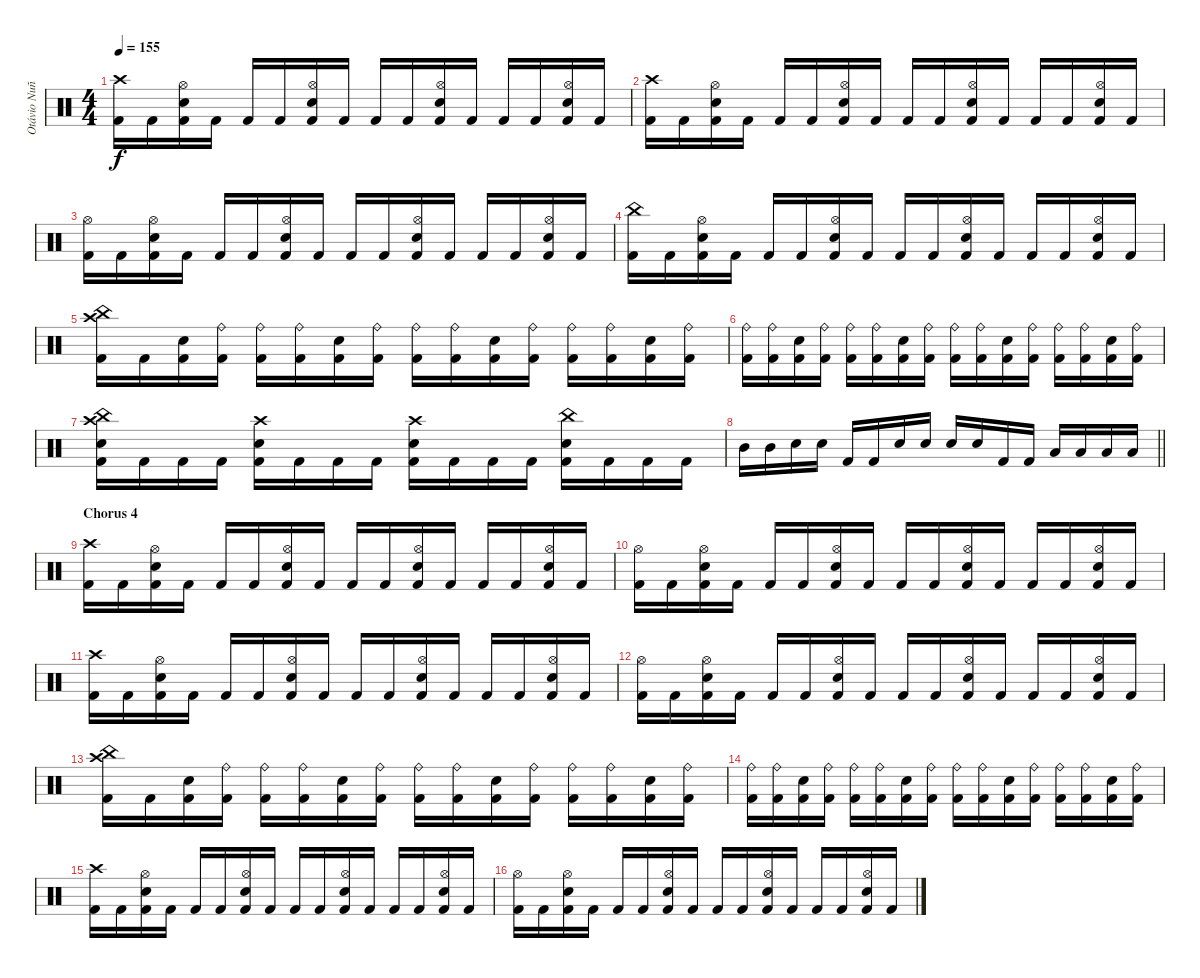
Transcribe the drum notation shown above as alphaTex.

\track ("Otávio Nuñez" "Otávio Nuñ") {instrument percussion}
\staff {score}
\articulation defaults
\ts (4 4)
\tempo 155
\clef neutral
\ks c
("Crash high (hit)" "Kick (hit) 2").16{dy f} "Kick (hit) 2".16 ("Hi-Hat (open)" "Electric Snare (hit)" "Kick (hit) 2").16 "Kick (hit) 2".16 "Kick (hit) 2".16 "Kick (hit) 2".16 ("Hi-Hat (open)" "Electric Snare (hit)" "Kick (hit) 2").16 "Kick (hit) 2".16 "Kick (hit) 2".16 "Kick (hit) 2".16 ("Hi-Hat (open)" "Electric Snare (hit)" "Kick (hit) 2").16 "Kick (hit) 2".16 "Kick (hit) 2".16 "Kick (hit) 2".16 ("Hi-Hat (open)" "Electric Snare (hit)" "Kick (hit) 2").16 "Kick (hit) 2".16 |
("Crash high (hit)" "Kick (hit) 2").16 "Kick (hit) 2".16 ("Hi-Hat (open)" "Electric Snare (hit)" "Kick (hit) 2").16 "Kick (hit) 2".16 "Kick (hit) 2".16 "Kick (hit) 2".16 ("Hi-Hat (open)" "Electric Snare (hit)" "Kick (hit) 2").16 "Kick (hit) 2".16 "Kick (hit) 2".16 "Kick (hit) 2".16 ("Hi-Hat (open)" "Electric Snare (hit)" "Kick (hit) 2").16 "Kick (hit) 2".16 "Kick (hit) 2".16 "Kick (hit) 2".16 ("Hi-Hat (open)" "Electric Snare (hit)" "Kick (hit) 2").16 "Kick (hit) 2".16 |
("Hi-Hat (open)" "Kick (hit) 2").16 "Kick (hit) 2".16 ("Hi-Hat (open)" "Electric Snare (hit)" "Kick (hit) 2").16 "Kick (hit) 2".16 "Kick (hit) 2".16 "Kick (hit) 2".16 ("Hi-Hat (open)" "Electric Snare (hit)" "Kick (hit) 2").16 "Kick (hit) 2".16 "Kick (hit) 2".16 "Kick (hit) 2".16 ("Hi-Hat (open)" "Electric Snare (hit)" "Kick (hit) 2").16 "Kick (hit) 2".16 "Kick (hit) 2".16 "Kick (hit) 2".16 ("Hi-Hat (open)" "Electric Snare (hit)" "Kick (hit) 2").16 "Kick (hit) 2".16 |
("China (hit)" "Kick (hit) 2").16 "Kick (hit) 2".16 ("Hi-Hat (open)" "Electric Snare (hit)" "Kick (hit) 2").16 "Kick (hit) 2".16 "Kick (hit) 2".16 "Kick (hit) 2".16 ("Hi-Hat (open)" "Electric Snare (hit)" "Kick (hit) 2").16 "Kick (hit) 2".16 "Kick (hit) 2".16 "Kick (hit) 2".16 ("Hi-Hat (open)" "Electric Snare (hit)" "Kick (hit) 2").16 "Kick (hit) 2".16 "Kick (hit) 2".16 "Kick (hit) 2".16 ("Hi-Hat (open)" "Electric Snare (hit)" "Kick (hit) 2").16 "Kick (hit) 2".16 |
("China (hit)" "Crash high (hit)" "Kick (hit) 2").16 "Kick (hit) 2".16 ("Electric Snare (hit)" "Kick (hit) 2").16 ("Ride (bell)" "Kick (hit) 2").16 ("Ride (bell)" "Kick (hit) 2").16 ("Ride (bell)" "Kick (hit) 2").16 ("Electric Snare (hit)" "Kick (hit) 2").16 ("Ride (bell)" "Kick (hit) 2").16 ("Ride (bell)" "Kick (hit) 2").16 ("Ride (bell)" "Kick (hit) 2").16 ("Electric Snare (hit)" "Kick (hit) 2").16 ("Ride (bell)" "Kick (hit) 2").16 ("Ride (bell)" "Kick (hit) 2").16 ("Ride (bell)" "Kick (hit) 2").16 ("Electric Snare (hit)" "Kick (hit) 2").16 ("Ride (bell)" "Kick (hit) 2").16 |
("Ride (bell)" "Kick (hit) 2").16 ("Ride (bell)" "Kick (hit) 2").16 ("Electric Snare (hit)" "Kick (hit) 2").16 ("Ride (bell)" "Kick (hit) 2").16 ("Ride (bell)" "Kick (hit) 2").16 ("Ride (bell)" "Kick (hit) 2").16 ("Electric Snare (hit)" "Kick (hit) 2").16 ("Ride (bell)" "Kick (hit) 2").16 ("Ride (bell)" "Kick (hit) 2").16 ("Ride (bell)" "Kick (hit) 2").16 ("Electric Snare (hit)" "Kick (hit) 2").16 ("Ride (bell)" "Kick (hit) 2").16 ("Ride (bell)" "Kick (hit) 2").16 ("Ride (bell)" "Kick (hit) 2").16 ("Electric Snare (hit)" "Kick (hit) 2").16 ("Ride (bell)" "Kick (hit) 2").16 |
("Crash high (hit)" "China (hit)" "Electric Snare (hit)" "Kick (hit) 2").16 "Kick (hit) 2".16 "Kick (hit) 2".16 "Kick (hit) 2".16 ("Crash high (hit)" "Electric Snare (hit)" "Kick (hit) 2").16 "Kick (hit) 2".16 "Kick (hit) 2".16 "Kick (hit) 2".16 ("Crash high (hit)" "Electric Snare (hit)" "Kick (hit) 2").16 "Kick (hit) 2".16 "Kick (hit) 2".16 "Kick (hit) 2".16 ("China (hit)" "Electric Snare (hit)" "Kick (hit) 2").16 "Kick (hit) 2".16 "Kick (hit) 2".16 "Kick (hit) 2".16 |
\barLineRight lightlight "Mid Tom (hit)".16 "Mid Tom (hit)".16 "Electric Snare (hit)".16 "Electric Snare (hit)".16 "Kick (hit) 2".16 "Kick (hit) 2".16 "Electric Snare (hit)".16 "Electric Snare (hit)".16 "Electric Snare (hit)".16 "Electric Snare (hit)".16 "Kick (hit) 2".16 "Kick (hit) 2".16 "Low Tom (hit)".16 "Low Tom (hit)".16 "Low Floor Tom (hit)".16 "Low Floor Tom (hit)".16
|
\section ("" "Chorus 4")
("Crash high (hit)" "Kick (hit) 2").16 "Kick (hit) 2".16 ("Hi-Hat (open)" "Electric Snare (hit)" "Kick (hit) 2").16 "Kick (hit) 2".16 "Kick (hit) 2".16 "Kick (hit) 2".16 ("Hi-Hat (open)" "Electric Snare (hit)" "Kick (hit) 2").16 "Kick (hit) 2".16 "Kick (hit) 2".16 "Kick (hit) 2".16 ("Hi-Hat (open)" "Electric Snare (hit)" "Kick (hit) 2").16 "Kick (hit) 2".16 "Kick (hit) 2".16 "Kick (hit) 2".16 ("Hi-Hat (open)" "Electric Snare (hit)" "Kick (hit) 2").16 "Kick (hit) 2".16 |
("Hi-Hat (open)" "Kick (hit) 2").16 "Kick (hit) 2".16 ("Hi-Hat (open)" "Electric Snare (hit)" "Kick (hit) 2").16 "Kick (hit) 2".16 "Kick (hit) 2".16 "Kick (hit) 2".16 ("Hi-Hat (open)" "Electric Snare (hit)" "Kick (hit) 2").16 "Kick (hit) 2".16 "Kick (hit) 2".16 "Kick (hit) 2".16 ("Hi-Hat (open)" "Electric Snare (hit)" "Kick (hit) 2").16 "Kick (hit) 2".16 "Kick (hit) 2".16 "Kick (hit) 2".16 ("Hi-Hat (open)" "Electric Snare (hit)" "Kick (hit) 2").16 "Kick (hit) 2".16 |
("Crash high (hit)" "Kick (hit) 2").16 "Kick (hit) 2".16 ("Hi-Hat (open)" "Electric Snare (hit)" "Kick (hit) 2").16 "Kick (hit) 2".16 "Kick (hit) 2".16 "Kick (hit) 2".16 ("Hi-Hat (open)" "Electric Snare (hit)" "Kick (hit) 2").16 "Kick (hit) 2".16 "Kick (hit) 2".16 "Kick (hit) 2".16 ("Hi-Hat (open)" "Electric Snare (hit)" "Kick (hit) 2").16 "Kick (hit) 2".16 "Kick (hit) 2".16 "Kick (hit) 2".16 ("Hi-Hat (open)" "Electric Snare (hit)" "Kick (hit) 2").16 "Kick (hit) 2".16 |
("Hi-Hat (open)" "Kick (hit) 2").16 "Kick (hit) 2".16 ("Hi-Hat (open)" "Electric Snare (hit)" "Kick (hit) 2").16 "Kick (hit) 2".16 "Kick (hit) 2".16 "Kick (hit) 2".16 ("Hi-Hat (open)" "Electric Snare (hit)" "Kick (hit) 2").16 "Kick (hit) 2".16 "Kick (hit) 2".16 "Kick (hit) 2".16 ("Hi-Hat (open)" "Electric Snare (hit)" "Kick (hit) 2").16 "Kick (hit) 2".16 "Kick (hit) 2".16 "Kick (hit) 2".16 ("Hi-Hat (open)" "Electric Snare (hit)" "Kick (hit) 2").16 "Kick (hit) 2".16 |
("China (hit)" "Crash high (hit)" "Kick (hit) 2").16 "Kick (hit) 2".16 ("Electric Snare (hit)" "Kick (hit) 2").16 ("Ride (bell)" "Kick (hit) 2").16 ("Ride (bell)" "Kick (hit) 2").16 ("Ride (bell)" "Kick (hit) 2").16 ("Electric Snare (hit)" "Kick (hit) 2").16 ("Ride (bell)" "Kick (hit) 2").16 ("Ride (bell)" "Kick (hit) 2").16 ("Ride (bell)" "Kick (hit) 2").16 ("Electric Snare (hit)" "Kick (hit) 2").16 ("Ride (bell)" "Kick (hit) 2").16 ("Ride (bell)" "Kick (hit) 2").16 ("Ride (bell)" "Kick (hit) 2").16 ("Electric Snare (hit)" "Kick (hit) 2").16 ("Ride (bell)" "Kick (hit) 2").16 |
("Ride (bell)" "Kick (hit) 2").16 ("Ride (bell)" "Kick (hit) 2").16 ("Electric Snare (hit)" "Kick (hit) 2").16 ("Ride (bell)" "Kick (hit) 2").16 ("Ride (bell)" "Kick (hit) 2").16 ("Ride (bell)" "Kick (hit) 2").16 ("Electric Snare (hit)" "Kick (hit) 2").16 ("Ride (bell)" "Kick (hit) 2").16 ("Ride (bell)" "Kick (hit) 2").16 ("Ride (bell)" "Kick (hit) 2").16 ("Electric Snare (hit)" "Kick (hit) 2").16 ("Ride (bell)" "Kick (hit) 2").16 ("Ride (bell)" "Kick (hit) 2").16 ("Ride (bell)" "Kick (hit) 2").16 ("Electric Snare (hit)" "Kick (hit) 2").16 ("Ride (bell)" "Kick (hit) 2").16 |
("Crash high (hit)" "Kick (hit) 2").16 "Kick (hit) 2".16 ("Hi-Hat (open)" "Electric Snare (hit)" "Kick (hit) 2").16 "Kick (hit) 2".16 "Kick (hit) 2".16 "Kick (hit) 2".16 ("Hi-Hat (open)" "Electric Snare (hit)" "Kick (hit) 2").16 "Kick (hit) 2".16 "Kick (hit) 2".16 "Kick (hit) 2".16 ("Hi-Hat (open)" "Electric Snare (hit)" "Kick (hit) 2").16 "Kick (hit) 2".16 "Kick (hit) 2".16 "Kick (hit) 2".16 ("Hi-Hat (open)" "Electric Snare (hit)" "Kick (hit) 2").16 "Kick (hit) 2".16 |
("Hi-Hat (open)" "Kick (hit) 2").16 "Kick (hit) 2".16 ("Hi-Hat (open)" "Electric Snare (hit)" "Kick (hit) 2").16 "Kick (hit) 2".16 "Kick (hit) 2".16 "Kick (hit) 2".16 ("Hi-Hat (open)" "Electric Snare (hit)" "Kick (hit) 2").16 "Kick (hit) 2".16 "Kick (hit) 2".16 "Kick (hit) 2".16 ("Hi-Hat (open)" "Electric Snare (hit)" "Kick (hit) 2").16 "Kick (hit) 2".16 "Kick (hit) 2".16 "Kick (hit) 2".16 ("Hi-Hat (open)" "Electric Snare (hit)" "Kick (hit) 2").16 "Kick (hit) 2".16
